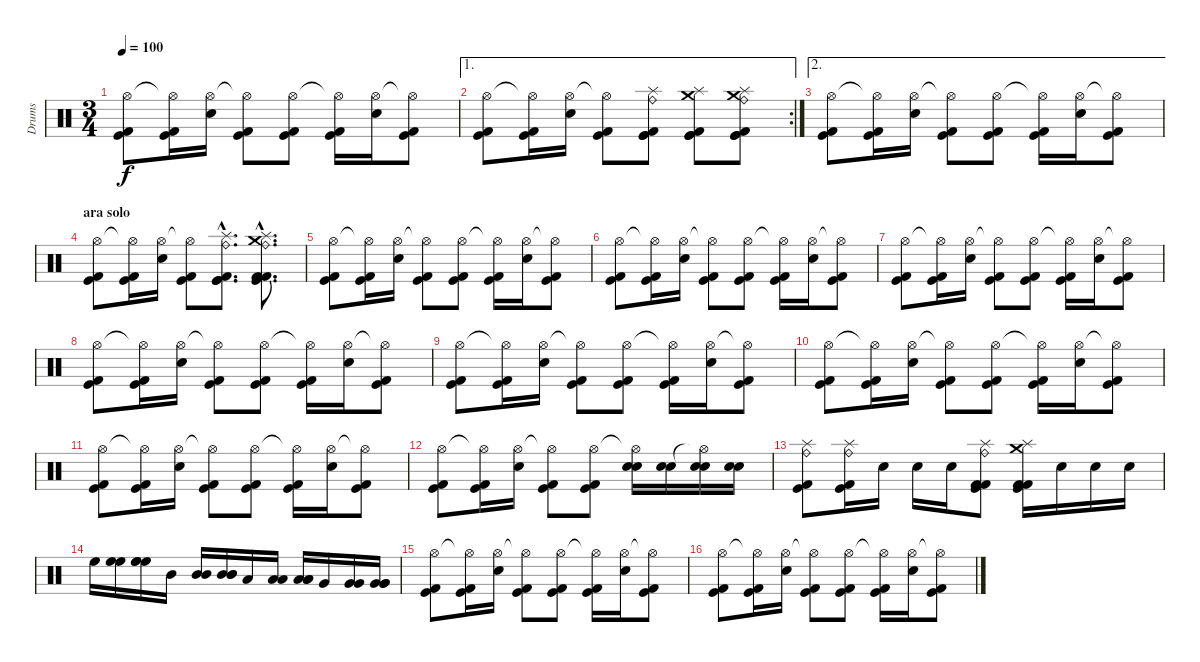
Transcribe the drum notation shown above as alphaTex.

\track ("Drums" "Drums") {instrument percussion}
\staff {score}
\articulation defaults
\ts (3 4)
\tempo 100
\clef neutral
\ks c
("Hi-Hat (open)" "Kick (hit)" "Kick (hit) 2").8{dy f} ("Hi-Hat (open)"{t} "Kick (hit)" "Kick (hit) 2").16 ("Hi-Hat (open)" "Snare (hit) 2").16 ("Hi-Hat (open)"{t} "Kick (hit)" "Kick (hit) 2").8 ("Hi-Hat (open)" "Kick (hit)" "Kick (hit) 2").8 ("Hi-Hat (open)"{t} "Kick (hit)" "Kick (hit) 2").16 ("Hi-Hat (open)" "Snare (hit) 2").16 ("Hi-Hat (open)"{t} "Kick (hit)" "Kick (hit) 2").8 |
\ae 1
\rc 2
("Hi-Hat (open)" "Kick (hit)" "Kick (hit) 2").8 ("Hi-Hat (open)"{t} "Kick (hit)" "Kick (hit) 2").16 ("Hi-Hat (open)" "Snare (hit) 2").16 ("Hi-Hat (open)"{t} "Kick (hit)" "Kick (hit) 2").8 ("Splash (hit)" "Ride (bell)" "Kick (hit)" "Kick (hit)" "Kick (hit) 2").8 ("Crash medium (hit)" "Splash (hit)" "Kick (hit)" "Kick (hit)" "Kick (hit) 2").8 ("Crash medium (hit)" "Ride (bell)" "Splash (hit)" "Kick (hit)" "Kick (hit)" "Kick (hit) 2").8 |
\ae 2
("Hi-Hat (open)" "Kick (hit)" "Kick (hit) 2").8 ("Hi-Hat (open)"{t} "Kick (hit)" "Kick (hit) 2").16 ("Hi-Hat (open)" "Snare (hit) 2").16 ("Hi-Hat (open)"{t} "Kick (hit)" "Kick (hit) 2").8 ("Hi-Hat (open)" "Kick (hit)" "Kick (hit) 2").8 ("Hi-Hat (open)"{t} "Kick (hit)" "Kick (hit) 2").16 ("Hi-Hat (open)" "Snare (hit) 2").16 ("Hi-Hat (open)"{t} "Kick (hit)" "Kick (hit) 2").8 |
\section ("" "ara solo")
("Hi-Hat (open)" "Kick (hit)" "Kick (hit) 2").8 ("Hi-Hat (open)"{t} "Kick (hit)" "Kick (hit) 2").16 ("Hi-Hat (open)" "Snare (hit) 2").16 ("Hi-Hat (open)"{t} "Kick (hit)" "Kick (hit) 2").8 ("Splash (hit)"{hac} "Ride (bell)"{hac} "Kick (hit)"{hac} "Kick (hit) 2"{hac} "Kick (hit)"{hac}).8{d} ("Ride (bell)"{hac} "Crash medium (hit)"{hac} "Splash (hit)"{hac} "Kick (hit)"{hac} "Kick (hit) 2"{hac} "Kick (hit) 2"{hac}).8{d} |
("Hi-Hat (open)" "Kick (hit)" "Kick (hit) 2").8 ("Hi-Hat (open)"{t} "Kick (hit)" "Kick (hit) 2").16 ("Hi-Hat (open)" "Snare (hit) 2").16 ("Hi-Hat (open)"{t} "Kick (hit)" "Kick (hit) 2").8 ("Hi-Hat (open)" "Kick (hit)" "Kick (hit) 2").8 ("Hi-Hat (open)"{t} "Kick (hit)" "Kick (hit) 2").16 ("Hi-Hat (open)" "Snare (hit) 2").16 ("Hi-Hat (open)"{t} "Kick (hit)" "Kick (hit) 2").8 |
("Hi-Hat (open)" "Kick (hit)" "Kick (hit) 2").8 ("Hi-Hat (open)"{t} "Kick (hit)" "Kick (hit) 2").16 ("Hi-Hat (open)" "Snare (hit) 2").16 ("Hi-Hat (open)"{t} "Kick (hit)" "Kick (hit) 2").8 ("Hi-Hat (open)" "Kick (hit)" "Kick (hit) 2").8 ("Hi-Hat (open)"{t} "Kick (hit)" "Kick (hit) 2").16 ("Hi-Hat (open)" "Snare (hit) 2").16 ("Hi-Hat (open)"{t} "Kick (hit)" "Kick (hit) 2").8 |
("Hi-Hat (open)" "Kick (hit)" "Kick (hit) 2").8 ("Hi-Hat (open)"{t} "Kick (hit)" "Kick (hit) 2").16 ("Hi-Hat (open)" "Snare (hit) 2").16 ("Hi-Hat (open)"{t} "Kick (hit)" "Kick (hit) 2").8 ("Hi-Hat (open)" "Kick (hit)" "Kick (hit) 2").8 ("Hi-Hat (open)"{t} "Kick (hit)" "Kick (hit) 2").16 ("Hi-Hat (open)" "Snare (hit) 2").16 ("Hi-Hat (open)"{t} "Kick (hit)" "Kick (hit) 2").8 |
("Hi-Hat (open)" "Kick (hit)" "Kick (hit) 2").8 ("Hi-Hat (open)"{t} "Kick (hit)" "Kick (hit) 2").16 ("Hi-Hat (open)" "Snare (hit) 2").16 ("Hi-Hat (open)"{t} "Kick (hit)" "Kick (hit) 2").8 ("Hi-Hat (open)" "Kick (hit)" "Kick (hit) 2").8 ("Hi-Hat (open)"{t} "Kick (hit)" "Kick (hit) 2").16 ("Hi-Hat (open)" "Snare (hit) 2").16 ("Hi-Hat (open)"{t} "Kick (hit)" "Kick (hit) 2").8 |
("Hi-Hat (open)" "Kick (hit)" "Kick (hit) 2").8 ("Hi-Hat (open)"{t} "Kick (hit)" "Kick (hit) 2").16 ("Hi-Hat (open)" "Snare (hit) 2").16 ("Hi-Hat (open)"{t} "Kick (hit)" "Kick (hit) 2").8 ("Hi-Hat (open)" "Kick (hit)" "Kick (hit) 2").8 ("Hi-Hat (open)"{t} "Kick (hit)" "Kick (hit) 2").16 ("Hi-Hat (open)" "Snare (hit) 2").16 ("Hi-Hat (open)"{t} "Kick (hit)" "Kick (hit) 2").8 |
("Hi-Hat (open)" "Kick (hit)" "Kick (hit) 2").8 ("Hi-Hat (open)"{t} "Kick (hit)" "Kick (hit) 2").16 ("Hi-Hat (open)" "Snare (hit) 2").16 ("Hi-Hat (open)"{t} "Kick (hit)" "Kick (hit) 2").8 ("Hi-Hat (open)" "Kick (hit)" "Kick (hit) 2").8 ("Hi-Hat (open)"{t} "Kick (hit)" "Kick (hit) 2").16 ("Hi-Hat (open)" "Snare (hit) 2").16 ("Hi-Hat (open)"{t} "Kick (hit)" "Kick (hit) 2").8 |
("Hi-Hat (open)" "Kick (hit)" "Kick (hit) 2").8 ("Hi-Hat (open)"{t} "Kick (hit)" "Kick (hit) 2").16 ("Hi-Hat (open)" "Snare (hit) 2").16 ("Hi-Hat (open)"{t} "Kick (hit)" "Kick (hit) 2").8 ("Hi-Hat (open)" "Kick (hit)" "Kick (hit) 2").8 ("Hi-Hat (open)"{t} "Kick (hit)" "Kick (hit) 2").16 ("Hi-Hat (open)" "Snare (hit) 2").16 ("Hi-Hat (open)"{t} "Kick (hit)" "Kick (hit) 2").8 |
("Hi-Hat (open)" "Kick (hit)" "Kick (hit) 2").8 ("Hi-Hat (open)"{t} "Kick (hit)" "Kick (hit) 2").16 ("Hi-Hat (open)" "Snare (hit) 2").16 ("Hi-Hat (open)"{t} "Kick (hit)" "Kick (hit) 2").8 ("Hi-Hat (open)" "Kick (hit)" "Kick (hit) 2").8 ("Hi-Hat (open)"{t} "Electric Snare (hit)" "Snare (hit) 2").16 ("Electric Snare (hit)" "Snare (hit) 2").16 ("Hi-Hat (open)"{t} "Electric Snare (hit)" "Snare (hit) 2").16 ("Electric Snare (hit)" "Snare (hit) 2").16 |
("Splash (hit)" "Ride (bell)" "Kick (hit)" "Kick (hit) 2").8 ("Splash (hit)" "Ride (bell)" "Kick (hit)" "Kick (hit) 2").16 "Snare (hit) 2".16 "Snare (hit) 2".16 "Snare (hit) 2".16 ("Splash (hit)" "Ride (bell)" "Kick (hit)" "Kick (hit) 2" "Kick (hit) 2").8 ("Crash medium (hit)" "Splash (hit)" "Kick (hit)" "Kick (hit) 2" "Kick (hit) 2").16 "Snare (hit) 2".16 "Snare (hit) 2".16 "Snare (hit) 2".16 |
"High Floor Tom (hit)".16 ("High Floor Tom (hit)" "High Floor Tom (hit)").16 ("High Floor Tom (hit)" "High Floor Tom (hit)" "High Floor Tom (hit)").16 "Mid Tom (hit)".16 ("Mid Tom (hit)" "Mid Tom (hit)").16 ("Mid Tom (hit)" "Mid Tom (hit)" "Mid Tom (hit)").16 "Low Tom (hit)".16 ("Low Tom (hit)" "Low Tom (hit)").16 ("Low Tom (hit)" "Low Tom (hit)" "Low Tom (hit)").16 "Very Low Tom (hit)".16 ("Very Low Tom (hit)" "Very Low Tom (hit)").16 ("Very Low Tom (hit)" "Very Low Tom (hit)" "Very Low Tom (hit)").16 |
("Hi-Hat (open)" "Kick (hit)" "Kick (hit) 2").8 ("Hi-Hat (open)"{t} "Kick (hit)" "Kick (hit) 2").16 ("Hi-Hat (open)" "Snare (hit) 2").16 ("Hi-Hat (open)"{t} "Kick (hit)" "Kick (hit) 2").8 ("Hi-Hat (open)" "Kick (hit)" "Kick (hit) 2").8 ("Hi-Hat (open)"{t} "Kick (hit)" "Kick (hit) 2").16 ("Hi-Hat (open)" "Snare (hit) 2").16 ("Hi-Hat (open)"{t} "Kick (hit)" "Kick (hit) 2").8 |
("Hi-Hat (open)" "Kick (hit)" "Kick (hit) 2").8 ("Hi-Hat (open)"{t} "Kick (hit)" "Kick (hit) 2").16 ("Hi-Hat (open)" "Snare (hit) 2").16 ("Hi-Hat (open)"{t} "Kick (hit)" "Kick (hit) 2").8 ("Hi-Hat (open)" "Kick (hit)" "Kick (hit) 2").8 ("Hi-Hat (open)"{t} "Kick (hit)" "Kick (hit) 2").16 ("Hi-Hat (open)" "Snare (hit) 2").16 ("Hi-Hat (open)"{t} "Kick (hit)" "Kick (hit) 2").8
